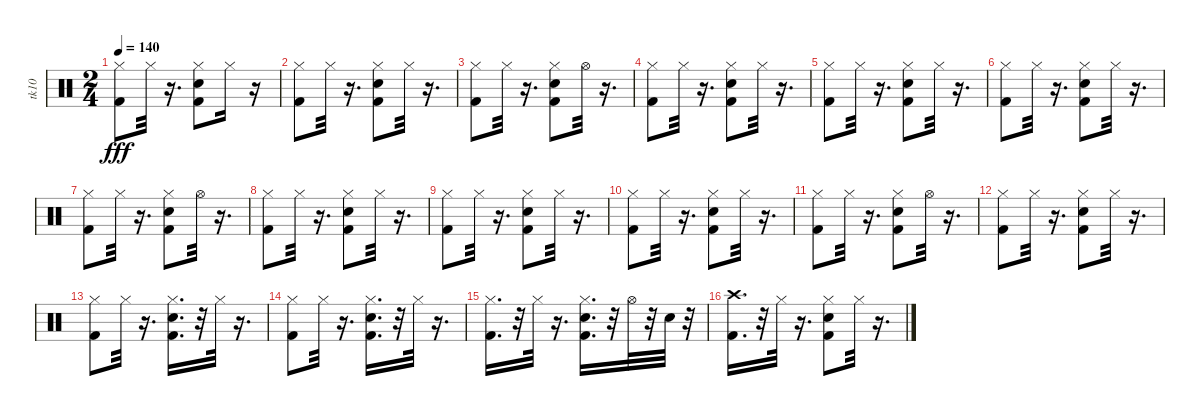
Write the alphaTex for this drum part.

\track ("tk10" "tk10") {instrument percussion}
\staff {score}
\articulation defaults
\ts (2 4)
\tempo 140
\clef neutral
\ks c
("Kick (hit) 2" "Hi-Hat (closed)").8{dy fff} "Hi-Hat (closed)".32 r.16{d} ("Snare (hit) 2" "Kick (hit) 2" "Hi-Hat (closed)").8 "Hi-Hat (closed)".16 r.16 |
("Kick (hit) 2" "Hi-Hat (closed)").8 "Hi-Hat (closed)".32 r.16{d} ("Kick (hit) 2" "Hi-Hat (closed)" "Snare (hit) 2").8 "Hi-Hat (closed)".32 r.16{d} |
("Kick (hit) 2" "Hi-Hat (closed)").8 "Hi-Hat (closed)".32 r.16{d} ("Kick (hit) 2" "Snare (hit) 2" "Hi-Hat (closed)").8 "Hi-Hat (open)".32 r.16{d} |
("Kick (hit) 2" "Hi-Hat (closed)").8 "Hi-Hat (closed)".32 r.16{d} ("Snare (hit) 2" "Kick (hit) 2" "Hi-Hat (closed)").8 "Hi-Hat (closed)".32 r.16{d} |
("Kick (hit) 2" "Hi-Hat (closed)").8 "Hi-Hat (closed)".32 r.16{d} ("Snare (hit) 2" "Kick (hit) 2" "Hi-Hat (closed)").8 "Hi-Hat (closed)".32 r.16{d} |
("Kick (hit) 2" "Hi-Hat (closed)").8 "Hi-Hat (closed)".32 r.16{d} ("Hi-Hat (closed)" "Snare (hit) 2" "Kick (hit) 2").8 "Hi-Hat (closed)".32 r.16{d} |
("Kick (hit) 2" "Hi-Hat (closed)").8 "Hi-Hat (closed)".32 r.16{d} ("Hi-Hat (closed)" "Snare (hit) 2" "Kick (hit) 2").8 "Hi-Hat (open)".32 r.16{d} |
("Kick (hit) 2" "Hi-Hat (closed)").8 "Hi-Hat (closed)".32 r.16{d} ("Snare (hit) 2" "Kick (hit) 2" "Hi-Hat (closed)").8 "Hi-Hat (closed)".32 r.16{d} |
("Kick (hit) 2" "Hi-Hat (closed)").8 "Hi-Hat (closed)".32 r.16{d} ("Snare (hit) 2" "Kick (hit) 2" "Hi-Hat (closed)").8 "Hi-Hat (closed)".32 r.16{d} |
("Kick (hit) 2" "Hi-Hat (closed)").8 "Hi-Hat (closed)".32 r.16{d} ("Kick (hit) 2" "Hi-Hat (closed)" "Snare (hit) 2").8 "Hi-Hat (closed)".32 r.16{d} |
("Kick (hit) 2" "Hi-Hat (closed)").8 "Hi-Hat (closed)".32 r.16{d} ("Kick (hit) 2" "Hi-Hat (closed)" "Snare (hit) 2").8 "Hi-Hat (open)".32 r.16{d} |
("Kick (hit) 2" "Hi-Hat (closed)").8 "Hi-Hat (closed)".32 r.16{d} ("Snare (hit) 2" "Kick (hit) 2" "Hi-Hat (closed)").8 "Hi-Hat (closed)".32 r.16{d} |
("Kick (hit) 2" "Hi-Hat (closed)").8 "Hi-Hat (closed)".32 r.16{d} ("Hi-Hat (closed)" "Snare (hit) 2" "Kick (hit) 2").16{d} r.32 "Hi-Hat (closed)".32 r.16{d} |
("Kick (hit) 2" "Hi-Hat (closed)").8 "Hi-Hat (closed)".32 r.16{d} ("Snare (hit) 2" "Kick (hit) 2" "Hi-Hat (closed)").16{d} r.32 "Hi-Hat (closed)".32 r.16{d} |
("Kick (hit) 2" "Hi-Hat (closed)").16{d} r.32 "Hi-Hat (closed)".32 r.16{d} ("Snare (hit) 2" "Kick (hit) 2" "Hi-Hat (closed)").16{d} r.32 "Hi-Hat (open)".32 r.32 "Snare (hit) 2".32 r.32 |
("Kick (hit) 2" "Crash high (hit)").16{d} r.32 "Hi-Hat (closed)".32 r.16{d} ("Kick (hit) 2" "Snare (hit) 2" "Hi-Hat (closed)").8 "Hi-Hat (closed)".32 r.16{d}
